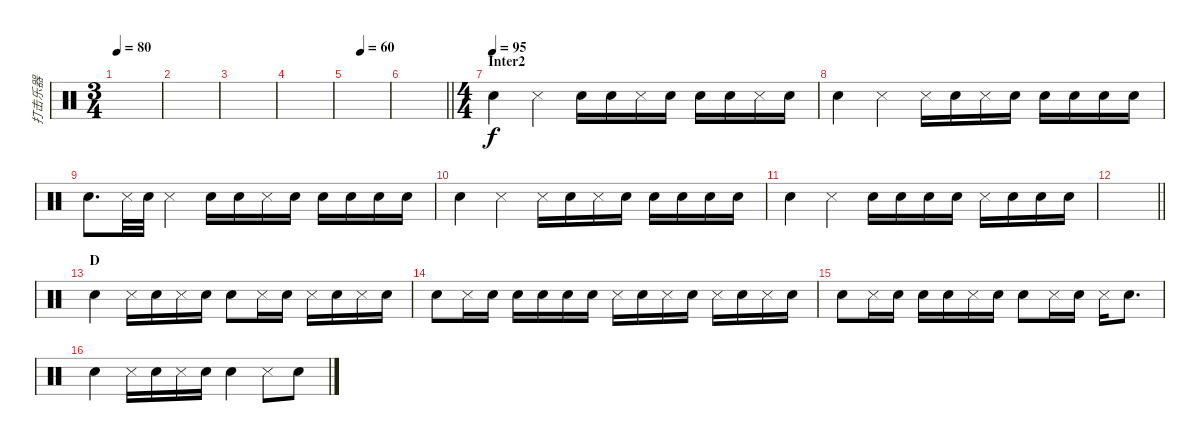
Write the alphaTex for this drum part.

\track ("打击乐器" "打击乐器") {instrument percussion}
\staff {score}
\articulation defaults
\ts (3 4)
\tempo 80
\clef neutral
\ks c
|
|
|
|
\tempo (60 0.3333333333333333)
|
\barLineRight lightlight
|
\ts (4 4)
\section ("" "Inter2")
\tempo (95)
"Snare (hit)".4 "Metronome (hit)".4 "Snare (hit)".16 "Snare (hit)".16 "Metronome (hit)".16 "Snare (hit)".16 "Snare (hit)".16 "Snare (hit)".16 "Metronome (hit)".16 "Snare (hit)".16 |
"Snare (hit)".4 "Metronome (hit)".4 "Metronome (hit)".16 "Snare (hit)".16 "Metronome (hit)".16 "Snare (hit)".16 "Snare (hit)".16 "Snare (hit)".16 "Snare (hit)".16 "Snare (hit)".16 |
"Snare (hit)".8{d} "Metronome (hit)".32 "Snare (hit)".32 "Metronome (hit)".4 "Snare (hit)".16 "Snare (hit)".16 "Metronome (hit)".16 "Snare (hit)".16 "Snare (hit)".16 "Snare (hit)".16 "Snare (hit)".16 "Snare (hit)".16 |
"Snare (hit)".4 "Metronome (hit)".4 "Metronome (hit)".16 "Snare (hit)".16 "Metronome (hit)".16 "Snare (hit)".16 "Snare (hit)".16 "Snare (hit)".16 "Snare (hit)".16 "Snare (hit)".16 |
"Snare (hit)".4 "Metronome (hit)".4 "Snare (hit)".16 "Snare (hit)".16 "Snare (hit)".16 "Snare (hit)".16 "Metronome (hit)".16 "Snare (hit)".16 "Snare (hit)".16 "Snare (hit)".16 |
\barLineRight lightlight
|
\section ("" "D")
"Snare (hit)".4 "Metronome (hit)".16 "Snare (hit)".16 "Metronome (hit)".16 "Snare (hit)".16 "Snare (hit)".8 "Metronome (hit)".16 "Snare (hit)".16 "Metronome (hit)".16 "Snare (hit)".16 "Metronome (hit)".16 "Snare (hit)".16 |
"Snare (hit)".8 "Metronome (hit)".16 "Snare (hit)".16 "Snare (hit)".16 "Snare (hit)".16 "Snare (hit)".16 "Snare (hit)".16 "Metronome (hit)".16 "Snare (hit)".16 "Metronome (hit)".16 "Snare (hit)".16 "Metronome (hit)".16 "Snare (hit)".16 "Metronome (hit)".16 "Snare (hit)".16 |
"Snare (hit)".8 "Metronome (hit)".16 "Snare (hit)".16 "Snare (hit)".16 "Snare (hit)".16 "Metronome (hit)".16 "Snare (hit)".16 "Snare (hit)".8 "Metronome (hit)".16 "Snare (hit)".16 "Metronome (hit)".16 "Snare (hit)".8{d} |
"Snare (hit)".4 "Metronome (hit)".16 "Snare (hit)".16 "Metronome (hit)".16 "Snare (hit)".16 "Snare (hit)".4 "Metronome (hit)".8 "Snare (hit)".8
